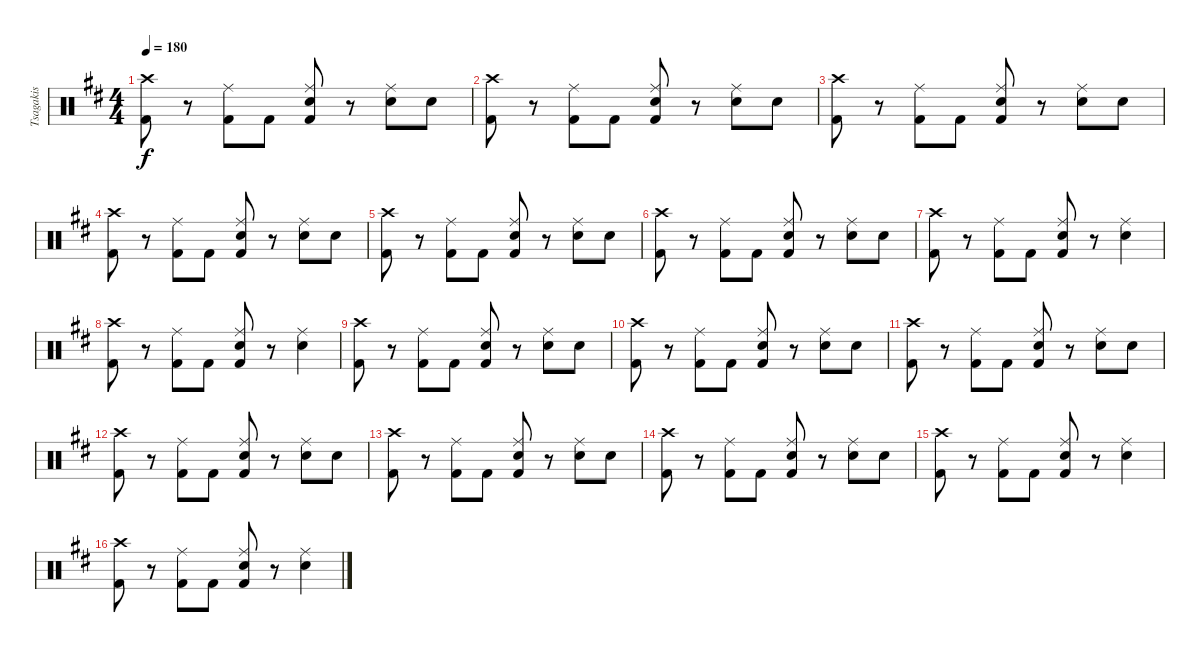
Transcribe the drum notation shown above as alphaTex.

\track ("Tsagakis" "Tsagakis") {instrument percussion}
\staff {score}
\articulation defaults
\ts (4 4)
\tempo 180
\clef neutral
\ks d
("Crash high (hit)" "Kick (hit) 2").8{dy f} r.8 ("Ride (middle)" "Kick (hit) 2").8 "Kick (hit) 2".8 ("Ride (middle)" "Electric Snare (hit)" "Kick (hit) 2").8 r.8 ("Ride (middle)" "Electric Snare (hit)").8 "Electric Snare (hit)".8 |
("Crash high (hit)" "Kick (hit) 2").8 r.8 ("Ride (middle)" "Kick (hit) 2").8 "Kick (hit) 2".8 ("Ride (middle)" "Electric Snare (hit)" "Kick (hit) 2").8 r.8 ("Ride (middle)" "Electric Snare (hit)").8 "Electric Snare (hit)".8 |
("Crash high (hit)" "Kick (hit) 2").8 r.8 ("Ride (middle)" "Kick (hit) 2").8 "Kick (hit) 2".8 ("Ride (middle)" "Electric Snare (hit)" "Kick (hit) 2").8 r.8 ("Ride (middle)" "Electric Snare (hit)").8 "Electric Snare (hit)".8 |
("Crash high (hit)" "Kick (hit) 2").8 r.8 ("Ride (middle)" "Kick (hit) 2").8 "Kick (hit) 2".8 ("Ride (middle)" "Electric Snare (hit)" "Kick (hit) 2").8 r.8 ("Ride (middle)" "Electric Snare (hit)").8 "Electric Snare (hit)".8 |
("Crash high (hit)" "Kick (hit) 2").8 r.8 ("Ride (middle)" "Kick (hit) 2").8 "Kick (hit) 2".8 ("Ride (middle)" "Electric Snare (hit)" "Kick (hit) 2").8 r.8 ("Ride (middle)" "Electric Snare (hit)").8 "Electric Snare (hit)".8 |
("Crash high (hit)" "Kick (hit) 2").8 r.8 ("Ride (middle)" "Kick (hit) 2").8 "Kick (hit) 2".8 ("Ride (middle)" "Electric Snare (hit)" "Kick (hit) 2").8 r.8 ("Ride (middle)" "Electric Snare (hit)").8 "Electric Snare (hit)".8 |
("Crash high (hit)" "Kick (hit) 2").8 r.8 ("Ride (middle)" "Kick (hit) 2").8 "Kick (hit) 2".8 ("Ride (middle)" "Electric Snare (hit)" "Kick (hit) 2").8 r.8 ("Ride (middle)" "Electric Snare (hit)").4 |
("Crash high (hit)" "Kick (hit) 2").8 r.8 ("Ride (middle)" "Kick (hit) 2").8 "Kick (hit) 2".8 ("Ride (middle)" "Electric Snare (hit)" "Kick (hit) 2").8 r.8 ("Ride (middle)" "Electric Snare (hit)").4 |
("Crash high (hit)" "Kick (hit) 2").8 r.8 ("Ride (middle)" "Kick (hit) 2").8 "Kick (hit) 2".8 ("Ride (middle)" "Electric Snare (hit)" "Kick (hit) 2").8 r.8 ("Ride (middle)" "Electric Snare (hit)").8 "Electric Snare (hit)".8 |
("Crash high (hit)" "Kick (hit) 2").8 r.8 ("Ride (middle)" "Kick (hit) 2").8 "Kick (hit) 2".8 ("Ride (middle)" "Electric Snare (hit)" "Kick (hit) 2").8 r.8 ("Ride (middle)" "Electric Snare (hit)").8 "Electric Snare (hit)".8 |
("Crash high (hit)" "Kick (hit) 2").8 r.8 ("Ride (middle)" "Kick (hit) 2").8 "Kick (hit) 2".8 ("Ride (middle)" "Electric Snare (hit)" "Kick (hit) 2").8 r.8 ("Ride (middle)" "Electric Snare (hit)").8 "Electric Snare (hit)".8 |
("Crash high (hit)" "Kick (hit) 2").8 r.8 ("Ride (middle)" "Kick (hit) 2").8 "Kick (hit) 2".8 ("Ride (middle)" "Electric Snare (hit)" "Kick (hit) 2").8 r.8 ("Ride (middle)" "Electric Snare (hit)").8 "Electric Snare (hit)".8 |
("Crash high (hit)" "Kick (hit) 2").8 r.8 ("Ride (middle)" "Kick (hit) 2").8 "Kick (hit) 2".8 ("Ride (middle)" "Electric Snare (hit)" "Kick (hit) 2").8 r.8 ("Ride (middle)" "Electric Snare (hit)").8 "Electric Snare (hit)".8 |
("Crash high (hit)" "Kick (hit) 2").8 r.8 ("Ride (middle)" "Kick (hit) 2").8 "Kick (hit) 2".8 ("Ride (middle)" "Electric Snare (hit)" "Kick (hit) 2").8 r.8 ("Ride (middle)" "Electric Snare (hit)").8 "Electric Snare (hit)".8 |
("Crash high (hit)" "Kick (hit) 2").8 r.8 ("Ride (middle)" "Kick (hit) 2").8 "Kick (hit) 2".8 ("Ride (middle)" "Electric Snare (hit)" "Kick (hit) 2").8 r.8 ("Ride (middle)" "Electric Snare (hit)").4 |
("Crash high (hit)" "Kick (hit) 2").8 r.8 ("Ride (middle)" "Kick (hit) 2").8 "Kick (hit) 2".8 ("Ride (middle)" "Electric Snare (hit)" "Kick (hit) 2").8 r.8 ("Ride (middle)" "Electric Snare (hit)").4
